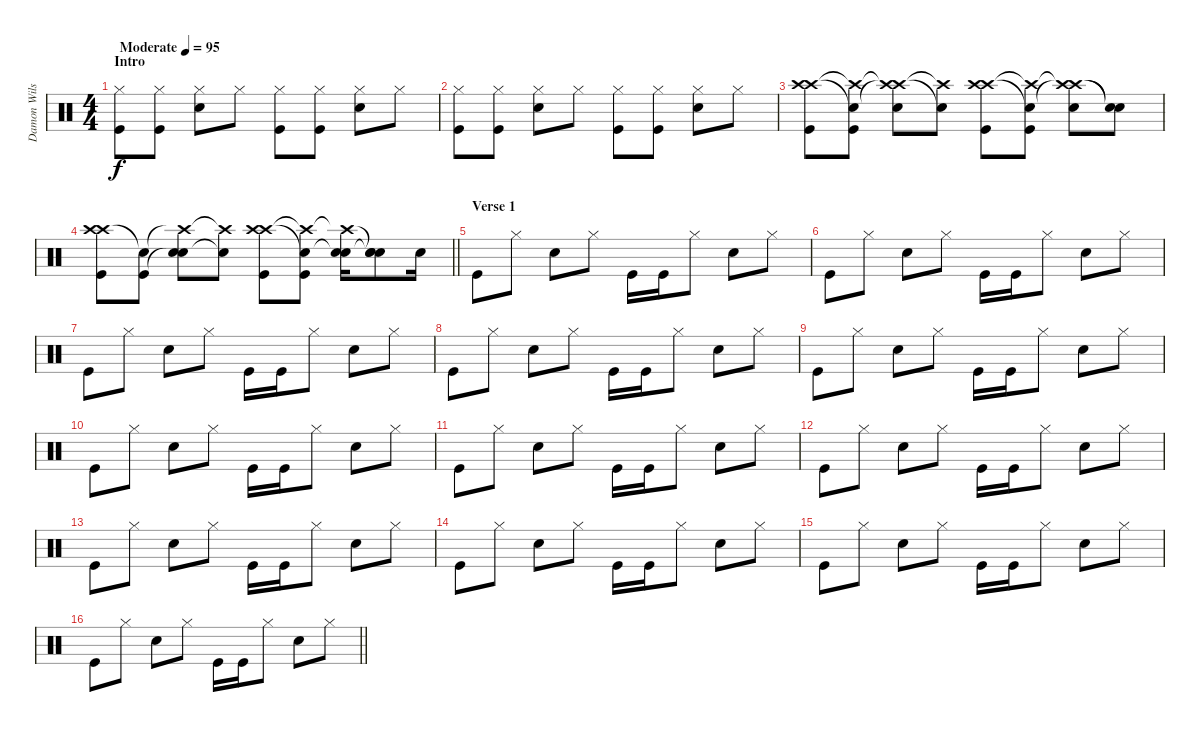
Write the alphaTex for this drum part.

\track ("Damon Wilson (Drums)" "Damon Wils") {instrument percussion}
\staff {score}
\articulation defaults
\ts (4 4)
\section ("" "Intro")
\tempo (95 "Moderate")
\clef neutral
\ks c
("Hi-Hat (closed)" "Kick (hit)").8{dy f} ("Hi-Hat (closed)" "Kick (hit)").8 ("Hi-Hat (closed)" "Snare (hit) 2").8 "Hi-Hat (closed)".8 ("Hi-Hat (closed)" "Kick (hit)").8 ("Hi-Hat (closed)" "Kick (hit)").8 ("Hi-Hat (closed)" "Snare (hit) 2").8 "Hi-Hat (closed)".8 |
("Hi-Hat (closed)" "Kick (hit)").8 ("Hi-Hat (closed)" "Kick (hit)").8 ("Hi-Hat (closed)" "Snare (hit) 2").8 "Hi-Hat (closed)".8 ("Hi-Hat (closed)" "Kick (hit)").8 ("Hi-Hat (closed)" "Kick (hit)").8 ("Hi-Hat (closed)" "Snare (hit) 2").8 "Hi-Hat (closed)".8 |
("Crash high (hit)" "Crash high (hit)" "Kick (hit)").8 ("Crash high (hit)"{t} "Snare (hit)"{t} "Kick (hit)").8 ("Crash high (hit)"{t} "Crash high (hit)"{t} "Snare (hit) 2").8 ("Crash high (hit)"{t} "Snare (hit)"{t}).8 ("Crash high (hit)" "Crash high (hit)" "Kick (hit)").8 ("Crash high (hit)"{t} "Snare (hit)"{t} "Kick (hit)").8 ("Crash high (hit)"{t} "Crash high (hit)"{t} "Snare (hit) 2").8 ("Snare (hit)"{t} "Snare (hit)"{t}).8 |
\barLineRight lightlight
("Crash high (hit)" "Crash high (hit)" "Kick (hit)").8 ("Snare (hit)"{t} "Kick (hit)").8 ("Crash high (hit)"{t} "Snare (hit)"{t} "Snare (hit) 2").8 ("Crash high (hit)"{t} "Snare (hit)"{t}).8 ("Crash high (hit)" "Crash high (hit)" "Kick (hit)").8 ("Crash high (hit)"{t} "Snare (hit)"{t} "Kick (hit)").8 ("Crash high (hit)"{t} "Snare (hit)"{t} "Snare (hit) 2").16 ("Snare (hit)"{t} "Snare (hit)"{t} "Snare (hit) 2").8 "Snare (hit) 2".16 |
\section ("" "Verse 1")
"Kick (hit)".8 "Hi-Hat (closed)".8 "Snare (hit) 2".8 "Hi-Hat (closed)".8 "Kick (hit)".16 "Kick (hit)".16 "Hi-Hat (closed)".8 "Snare (hit) 2".8 "Hi-Hat (closed)".8 |
"Kick (hit)".8 "Hi-Hat (closed)".8 "Snare (hit) 2".8 "Hi-Hat (closed)".8 "Kick (hit)".16 "Kick (hit)".16 "Hi-Hat (closed)".8 "Snare (hit) 2".8 "Hi-Hat (closed)".8 |
"Kick (hit)".8 "Hi-Hat (closed)".8 "Snare (hit) 2".8 "Hi-Hat (closed)".8 "Kick (hit)".16 "Kick (hit)".16 "Hi-Hat (closed)".8 "Snare (hit) 2".8 "Hi-Hat (closed)".8 |
"Kick (hit)".8 "Hi-Hat (closed)".8 "Snare (hit) 2".8 "Hi-Hat (closed)".8 "Kick (hit)".16 "Kick (hit)".16 "Hi-Hat (closed)".8 "Snare (hit) 2".8 "Hi-Hat (closed)".8 |
"Kick (hit)".8 "Hi-Hat (closed)".8 "Snare (hit) 2".8 "Hi-Hat (closed)".8 "Kick (hit)".16 "Kick (hit)".16 "Hi-Hat (closed)".8 "Snare (hit) 2".8 "Hi-Hat (closed)".8 |
"Kick (hit)".8 "Hi-Hat (closed)".8 "Snare (hit) 2".8 "Hi-Hat (closed)".8 "Kick (hit)".16 "Kick (hit)".16 "Hi-Hat (closed)".8 "Snare (hit) 2".8 "Hi-Hat (closed)".8 |
"Kick (hit)".8 "Hi-Hat (closed)".8 "Snare (hit) 2".8 "Hi-Hat (closed)".8 "Kick (hit)".16 "Kick (hit)".16 "Hi-Hat (closed)".8 "Snare (hit) 2".8 "Hi-Hat (closed)".8 |
"Kick (hit)".8 "Hi-Hat (closed)".8 "Snare (hit) 2".8 "Hi-Hat (closed)".8 "Kick (hit)".16 "Kick (hit)".16 "Hi-Hat (closed)".8 "Snare (hit) 2".8 "Hi-Hat (closed)".8 |
"Kick (hit)".8 "Hi-Hat (closed)".8 "Snare (hit) 2".8 "Hi-Hat (closed)".8 "Kick (hit)".16 "Kick (hit)".16 "Hi-Hat (closed)".8 "Snare (hit) 2".8 "Hi-Hat (closed)".8 |
"Kick (hit)".8 "Hi-Hat (closed)".8 "Snare (hit) 2".8 "Hi-Hat (closed)".8 "Kick (hit)".16 "Kick (hit)".16 "Hi-Hat (closed)".8 "Snare (hit) 2".8 "Hi-Hat (closed)".8 |
"Kick (hit)".8 "Hi-Hat (closed)".8 "Snare (hit) 2".8 "Hi-Hat (closed)".8 "Kick (hit)".16 "Kick (hit)".16 "Hi-Hat (closed)".8 "Snare (hit) 2".8 "Hi-Hat (closed)".8 |
\barLineRight lightlight "Kick (hit)".8 "Hi-Hat (closed)".8 "Snare (hit) 2".8 "Hi-Hat (closed)".8 "Kick (hit)".16 "Kick (hit)".16 "Hi-Hat (closed)".8 "Snare (hit) 2".8 "Hi-Hat (closed)".8
